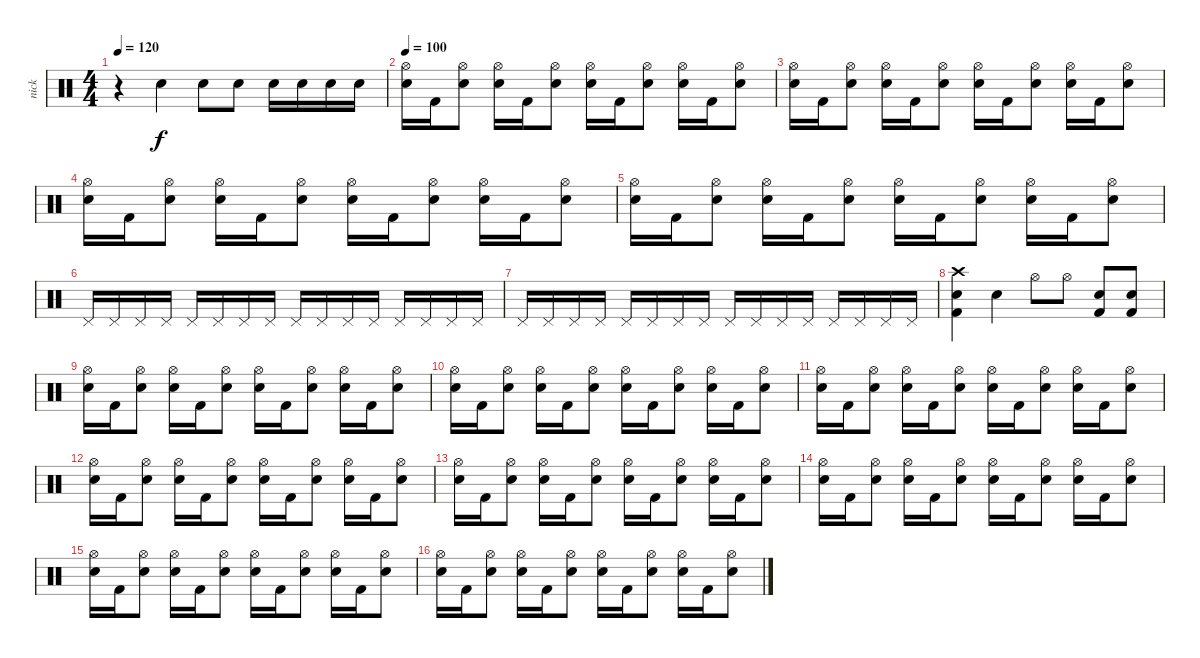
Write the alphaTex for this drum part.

\track ("nick" "nick") {instrument percussion}
\staff {score}
\articulation defaults
\ts (4 4)
\tempo 120
\clef neutral
\ks c
r.4{dy f} "Snare (hit) 2".4 "Snare (hit) 2".8 "Snare (hit) 2".8 "Snare (hit) 2".16 "Snare (hit) 2".16 "Snare (hit) 2".16 "Snare (hit) 2".16 |
\tempo 100
("Snare (hit) 2" "Hi-Hat (open)").16 "Kick (hit) 2".16 ("Snare (hit) 2" "Hi-Hat (open)").8 ("Snare (hit) 2" "Hi-Hat (open)").16 "Kick (hit) 2".16 ("Snare (hit) 2" "Hi-Hat (open)").8 ("Snare (hit) 2" "Hi-Hat (open)").16 "Kick (hit) 2".16 ("Snare (hit) 2" "Hi-Hat (open)").8 ("Snare (hit) 2" "Hi-Hat (open)").16 "Kick (hit) 2".16 ("Snare (hit) 2" "Hi-Hat (open)").8 |
("Snare (hit) 2" "Hi-Hat (open)").16 "Kick (hit) 2".16 ("Snare (hit) 2" "Hi-Hat (open)").8 ("Snare (hit) 2" "Hi-Hat (open)").16 "Kick (hit) 2".16 ("Snare (hit) 2" "Hi-Hat (open)").8 ("Snare (hit) 2" "Hi-Hat (open)").16 "Kick (hit) 2".16 ("Snare (hit) 2" "Hi-Hat (open)").8 ("Snare (hit) 2" "Hi-Hat (open)").16 "Kick (hit) 2".16 ("Snare (hit) 2" "Hi-Hat (open)").8 |
("Snare (hit) 2" "Hi-Hat (open)").16 "Kick (hit) 2".16 ("Snare (hit) 2" "Hi-Hat (open)").8 ("Snare (hit) 2" "Hi-Hat (open)").16 "Kick (hit) 2".16 ("Snare (hit) 2" "Hi-Hat (open)").8 ("Snare (hit) 2" "Hi-Hat (open)").16 "Kick (hit) 2".16 ("Snare (hit) 2" "Hi-Hat (open)").8 ("Snare (hit) 2" "Hi-Hat (open)").16 "Kick (hit) 2".16 ("Snare (hit) 2" "Hi-Hat (open)").8 |
("Snare (hit) 2" "Hi-Hat (open)").16 "Kick (hit) 2".16 ("Snare (hit) 2" "Hi-Hat (open)").8 ("Snare (hit) 2" "Hi-Hat (open)").16 "Kick (hit) 2".16 ("Snare (hit) 2" "Hi-Hat (open)").8 ("Snare (hit) 2" "Hi-Hat (open)").16 "Kick (hit) 2".16 ("Snare (hit) 2" "Hi-Hat (open)").8 ("Snare (hit) 2" "Hi-Hat (open)").16 "Kick (hit) 2".16 ("Snare (hit) 2" "Hi-Hat (open)").8 |
"Pedal Hi-Hat (hit)".16 "Pedal Hi-Hat (hit)".16 "Pedal Hi-Hat (hit)".16 "Pedal Hi-Hat (hit)".16 "Pedal Hi-Hat (hit)".16 "Pedal Hi-Hat (hit)".16 "Pedal Hi-Hat (hit)".16 "Pedal Hi-Hat (hit)".16 "Pedal Hi-Hat (hit)".16 "Pedal Hi-Hat (hit)".16 "Pedal Hi-Hat (hit)".16 "Pedal Hi-Hat (hit)".16 "Pedal Hi-Hat (hit)".16 "Pedal Hi-Hat (hit)".16 "Pedal Hi-Hat (hit)".16 "Pedal Hi-Hat (hit)".16 |
"Pedal Hi-Hat (hit)".16 "Pedal Hi-Hat (hit)".16 "Pedal Hi-Hat (hit)".16 "Pedal Hi-Hat (hit)".16 "Pedal Hi-Hat (hit)".16 "Pedal Hi-Hat (hit)".16 "Pedal Hi-Hat (hit)".16 "Pedal Hi-Hat (hit)".16 "Pedal Hi-Hat (hit)".16 "Pedal Hi-Hat (hit)".16 "Pedal Hi-Hat (hit)".16 "Pedal Hi-Hat (hit)".16 "Pedal Hi-Hat (hit)".16 "Pedal Hi-Hat (hit)".16 "Pedal Hi-Hat (hit)".16 "Pedal Hi-Hat (hit)".16 |
("Snare (hit) 2" "Kick (hit) 2" "Crash high (hit)").4 "Snare (hit)".4 "Hi-Hat (open)".8 "Hi-Hat (open)".8 ("Snare (hit) 2" "Kick (hit) 2").8 ("Snare (hit) 2" "Kick (hit) 2").8 |
("Snare (hit) 2" "Hi-Hat (open)").16 "Kick (hit) 2".16 ("Snare (hit) 2" "Hi-Hat (open)").8 ("Snare (hit) 2" "Hi-Hat (open)").16 "Kick (hit) 2".16 ("Snare (hit) 2" "Hi-Hat (open)").8 ("Snare (hit) 2" "Hi-Hat (open)").16 "Kick (hit) 2".16 ("Snare (hit) 2" "Hi-Hat (open)").8 ("Snare (hit) 2" "Hi-Hat (open)").16 "Kick (hit) 2".16 ("Snare (hit) 2" "Hi-Hat (open)").8 |
("Snare (hit) 2" "Hi-Hat (open)").16 "Kick (hit) 2".16 ("Snare (hit) 2" "Hi-Hat (open)").8 ("Snare (hit) 2" "Hi-Hat (open)").16 "Kick (hit) 2".16 ("Snare (hit) 2" "Hi-Hat (open)").8 ("Snare (hit) 2" "Hi-Hat (open)").16 "Kick (hit) 2".16 ("Snare (hit) 2" "Hi-Hat (open)").8 ("Snare (hit) 2" "Hi-Hat (open)").16 "Kick (hit) 2".16 ("Snare (hit) 2" "Hi-Hat (open)").8 |
("Snare (hit) 2" "Hi-Hat (open)").16 "Kick (hit) 2".16 ("Snare (hit) 2" "Hi-Hat (open)").8 ("Snare (hit) 2" "Hi-Hat (open)").16 "Kick (hit) 2".16 ("Snare (hit) 2" "Hi-Hat (open)").8 ("Snare (hit) 2" "Hi-Hat (open)").16 "Kick (hit) 2".16 ("Snare (hit) 2" "Hi-Hat (open)").8 ("Snare (hit) 2" "Hi-Hat (open)").16 "Kick (hit) 2".16 ("Snare (hit) 2" "Hi-Hat (open)").8 |
("Snare (hit) 2" "Hi-Hat (open)").16 "Kick (hit) 2".16 ("Snare (hit) 2" "Hi-Hat (open)").8 ("Snare (hit) 2" "Hi-Hat (open)").16 "Kick (hit) 2".16 ("Snare (hit) 2" "Hi-Hat (open)").8 ("Snare (hit) 2" "Hi-Hat (open)").16 "Kick (hit) 2".16 ("Snare (hit) 2" "Hi-Hat (open)").8 ("Snare (hit) 2" "Hi-Hat (open)").16 "Kick (hit) 2".16 ("Snare (hit) 2" "Hi-Hat (open)").8 |
("Snare (hit) 2" "Hi-Hat (open)").16 "Kick (hit) 2".16 ("Snare (hit) 2" "Hi-Hat (open)").8 ("Snare (hit) 2" "Hi-Hat (open)").16 "Kick (hit) 2".16 ("Snare (hit) 2" "Hi-Hat (open)").8 ("Snare (hit) 2" "Hi-Hat (open)").16 "Kick (hit) 2".16 ("Snare (hit) 2" "Hi-Hat (open)").8 ("Snare (hit) 2" "Hi-Hat (open)").16 "Kick (hit) 2".16 ("Snare (hit) 2" "Hi-Hat (open)").8 |
("Snare (hit) 2" "Hi-Hat (open)").16 "Kick (hit) 2".16 ("Snare (hit) 2" "Hi-Hat (open)").8 ("Snare (hit) 2" "Hi-Hat (open)").16 "Kick (hit) 2".16 ("Snare (hit) 2" "Hi-Hat (open)").8 ("Snare (hit) 2" "Hi-Hat (open)").16 "Kick (hit) 2".16 ("Snare (hit) 2" "Hi-Hat (open)").8 ("Snare (hit) 2" "Hi-Hat (open)").16 "Kick (hit) 2".16 ("Snare (hit) 2" "Hi-Hat (open)").8 |
("Snare (hit) 2" "Hi-Hat (open)").16 "Kick (hit) 2".16 ("Snare (hit) 2" "Hi-Hat (open)").8 ("Snare (hit) 2" "Hi-Hat (open)").16 "Kick (hit) 2".16 ("Snare (hit) 2" "Hi-Hat (open)").8 ("Snare (hit) 2" "Hi-Hat (open)").16 "Kick (hit) 2".16 ("Snare (hit) 2" "Hi-Hat (open)").8 ("Snare (hit) 2" "Hi-Hat (open)").16 "Kick (hit) 2".16 ("Snare (hit) 2" "Hi-Hat (open)").8 |
("Snare (hit) 2" "Hi-Hat (open)").16 "Kick (hit) 2".16 ("Snare (hit) 2" "Hi-Hat (open)").8 ("Snare (hit) 2" "Hi-Hat (open)").16 "Kick (hit) 2".16 ("Snare (hit) 2" "Hi-Hat (open)").8 ("Snare (hit) 2" "Hi-Hat (open)").16 "Kick (hit) 2".16 ("Snare (hit) 2" "Hi-Hat (open)").8 ("Snare (hit) 2" "Hi-Hat (open)").16 "Kick (hit) 2".16 ("Snare (hit) 2" "Hi-Hat (open)").8
